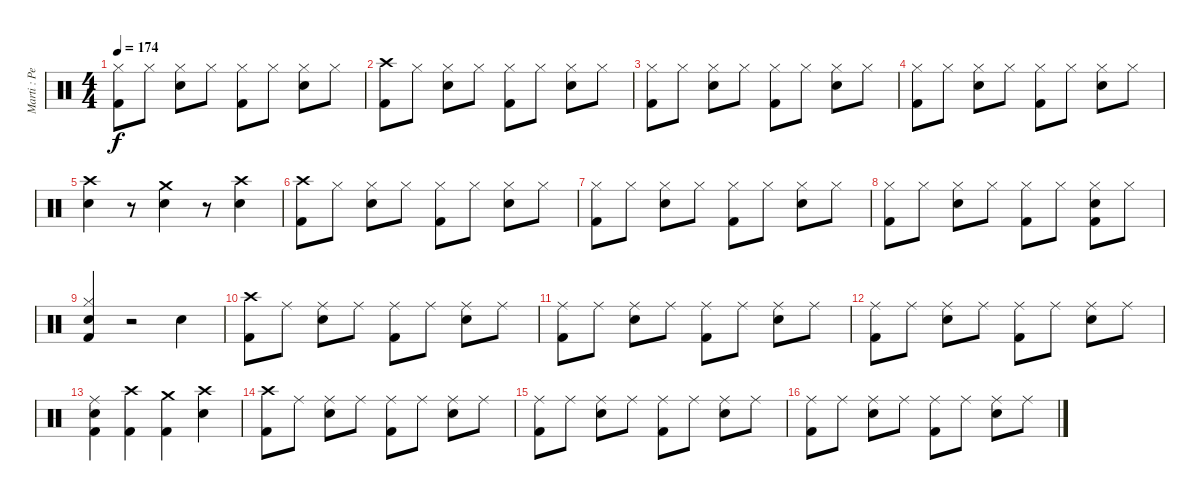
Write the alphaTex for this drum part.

\track ("Marti : Percussion" "Marti : Pe") {instrument percussion}
\staff {score}
\articulation defaults
\ts (4 4)
\tempo 174
\clef neutral
\ks c
("Kick (hit) 2" "Hi-Hat (closed)").8{dy f} "Hi-Hat (closed)".8 ("Electric Snare (hit)" "Hi-Hat (closed)").8 "Hi-Hat (closed)".8 ("Kick (hit) 2" "Hi-Hat (closed)").8 "Hi-Hat (closed)".8 ("Electric Snare (hit)" "Hi-Hat (closed)").8 "Hi-Hat (closed)".8 |
("Kick (hit) 2" "Crash high (hit)").8 "Hi-Hat (closed)".8 ("Electric Snare (hit)" "Hi-Hat (closed)").8 "Hi-Hat (closed)".8 ("Kick (hit) 2" "Hi-Hat (closed)").8 "Hi-Hat (closed)".8 ("Electric Snare (hit)" "Hi-Hat (closed)").8 "Hi-Hat (closed)".8 |
("Kick (hit) 2" "Hi-Hat (closed)").8 "Hi-Hat (closed)".8 ("Electric Snare (hit)" "Hi-Hat (closed)").8 "Hi-Hat (closed)".8 ("Kick (hit) 2" "Hi-Hat (closed)").8 "Hi-Hat (closed)".8 ("Electric Snare (hit)" "Hi-Hat (closed)").8 "Hi-Hat (closed)".8 |
("Kick (hit) 2" "Hi-Hat (closed)").8 "Hi-Hat (closed)".8 ("Electric Snare (hit)" "Hi-Hat (closed)").8 "Hi-Hat (closed)".8 ("Kick (hit) 2" "Hi-Hat (closed)").8 "Hi-Hat (closed)".8 ("Electric Snare (hit)" "Hi-Hat (closed)").8 "Hi-Hat (closed)".8 |
("Electric Snare (hit)" "Crash high (hit)").4 r.8 ("Electric Snare (hit)" "Crash medium (hit)").4 r.8 ("Electric Snare (hit)" "Crash high (hit)").4 |
("Kick (hit) 2" "Crash high (hit)").8 "Hi-Hat (closed)".8 ("Electric Snare (hit)" "Hi-Hat (closed)").8 "Hi-Hat (closed)".8 ("Kick (hit) 2" "Hi-Hat (closed)").8 "Hi-Hat (closed)".8 ("Electric Snare (hit)" "Hi-Hat (closed)").8 "Hi-Hat (closed)".8 |
("Kick (hit) 2" "Hi-Hat (closed)").8 "Hi-Hat (closed)".8 ("Electric Snare (hit)" "Hi-Hat (closed)").8 "Hi-Hat (closed)".8 ("Kick (hit) 2" "Hi-Hat (closed)").8 "Hi-Hat (closed)".8 ("Electric Snare (hit)" "Hi-Hat (closed)").8 "Hi-Hat (closed)".8 |
("Kick (hit) 2" "Hi-Hat (closed)").8 "Hi-Hat (closed)".8 ("Electric Snare (hit)" "Hi-Hat (closed)").8 "Hi-Hat (closed)".8 ("Kick (hit) 2" "Hi-Hat (closed)").8 "Hi-Hat (closed)".8 ("Kick (hit) 2" "Electric Snare (hit)" "Hi-Hat (closed)").8 "Hi-Hat (closed)".8 |
("Kick (hit) 2" "Electric Snare (hit)" "Hi-Hat (closed)").4 r.2 "Electric Snare (hit)".4 |
("Kick (hit) 2" "Crash high (hit)").8 "Ride (middle)".8 ("Electric Snare (hit)" "Ride (middle)").8 "Ride (middle)".8 ("Kick (hit) 2" "Ride (middle)").8 "Ride (middle)".8 ("Electric Snare (hit)" "Ride (middle)").8 "Ride (middle)".8 |
("Kick (hit) 2" "Ride (middle)").8 "Ride (middle)".8 ("Electric Snare (hit)" "Ride (middle)").8 "Ride (middle)".8 ("Kick (hit) 2" "Ride (middle)").8 "Ride (middle)".8 ("Electric Snare (hit)" "Ride (middle)").8 "Ride (middle)".8 |
("Kick (hit) 2" "Ride (middle)").8 "Ride (middle)".8 ("Electric Snare (hit)" "Ride (middle)").8 "Ride (middle)".8 ("Kick (hit) 2" "Ride (middle)").8 "Ride (middle)".8 ("Electric Snare (hit)" "Ride (middle)").8 "Ride (middle)".8 |
("Kick (hit) 2" "Electric Snare (hit)" "Ride (middle)").4 ("Kick (hit) 2" "Crash high (hit)").4 ("Kick (hit) 2" "Crash medium (hit)").4 ("Electric Snare (hit)" "Crash high (hit)").4 |
("Kick (hit) 2" "Crash high (hit)").8 "Ride (middle)".8 ("Electric Snare (hit)" "Ride (middle)").8 "Ride (middle)".8 ("Kick (hit) 2" "Ride (middle)").8 "Ride (middle)".8 ("Electric Snare (hit)" "Ride (middle)").8 "Ride (middle)".8 |
("Kick (hit) 2" "Ride (middle)").8 "Ride (middle)".8 ("Electric Snare (hit)" "Ride (middle)").8 "Ride (middle)".8 ("Kick (hit) 2" "Ride (middle)").8 "Ride (middle)".8 ("Electric Snare (hit)" "Ride (middle)").8 "Ride (middle)".8 |
("Kick (hit) 2" "Ride (middle)").8 "Ride (middle)".8 ("Electric Snare (hit)" "Ride (middle)").8 "Ride (middle)".8 ("Kick (hit) 2" "Ride (middle)").8 "Ride (middle)".8 ("Electric Snare (hit)" "Ride (middle)").8 "Ride (middle)".8
